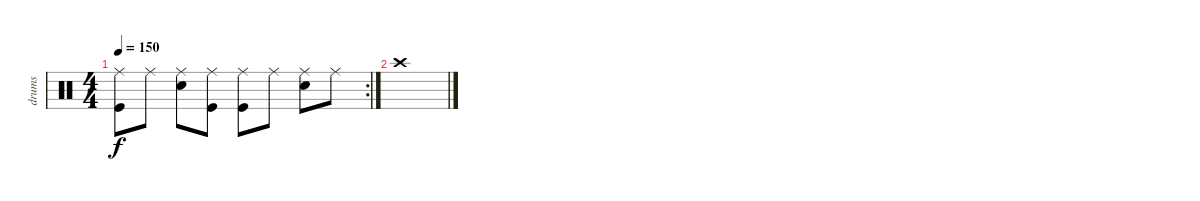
\track ("drums" "drums") {instrument percussion}
\staff {score}
\articulation defaults
\rc 2
\ts (4 4)
\tempo 150
\clef neutral
\ks c
("Ride (middle)" "Kick (hit)").8{dy f} "Ride (middle)".8 ("Ride (middle)" "Snare (hit) 2").8 ("Ride (middle)" "Kick (hit)").8 ("Ride (middle)" "Kick (hit)").8 "Ride (middle)".8 ("Ride (middle)" "Snare (hit) 2").8 "Ride (middle)".8 |
"Crash high (hit)".1
